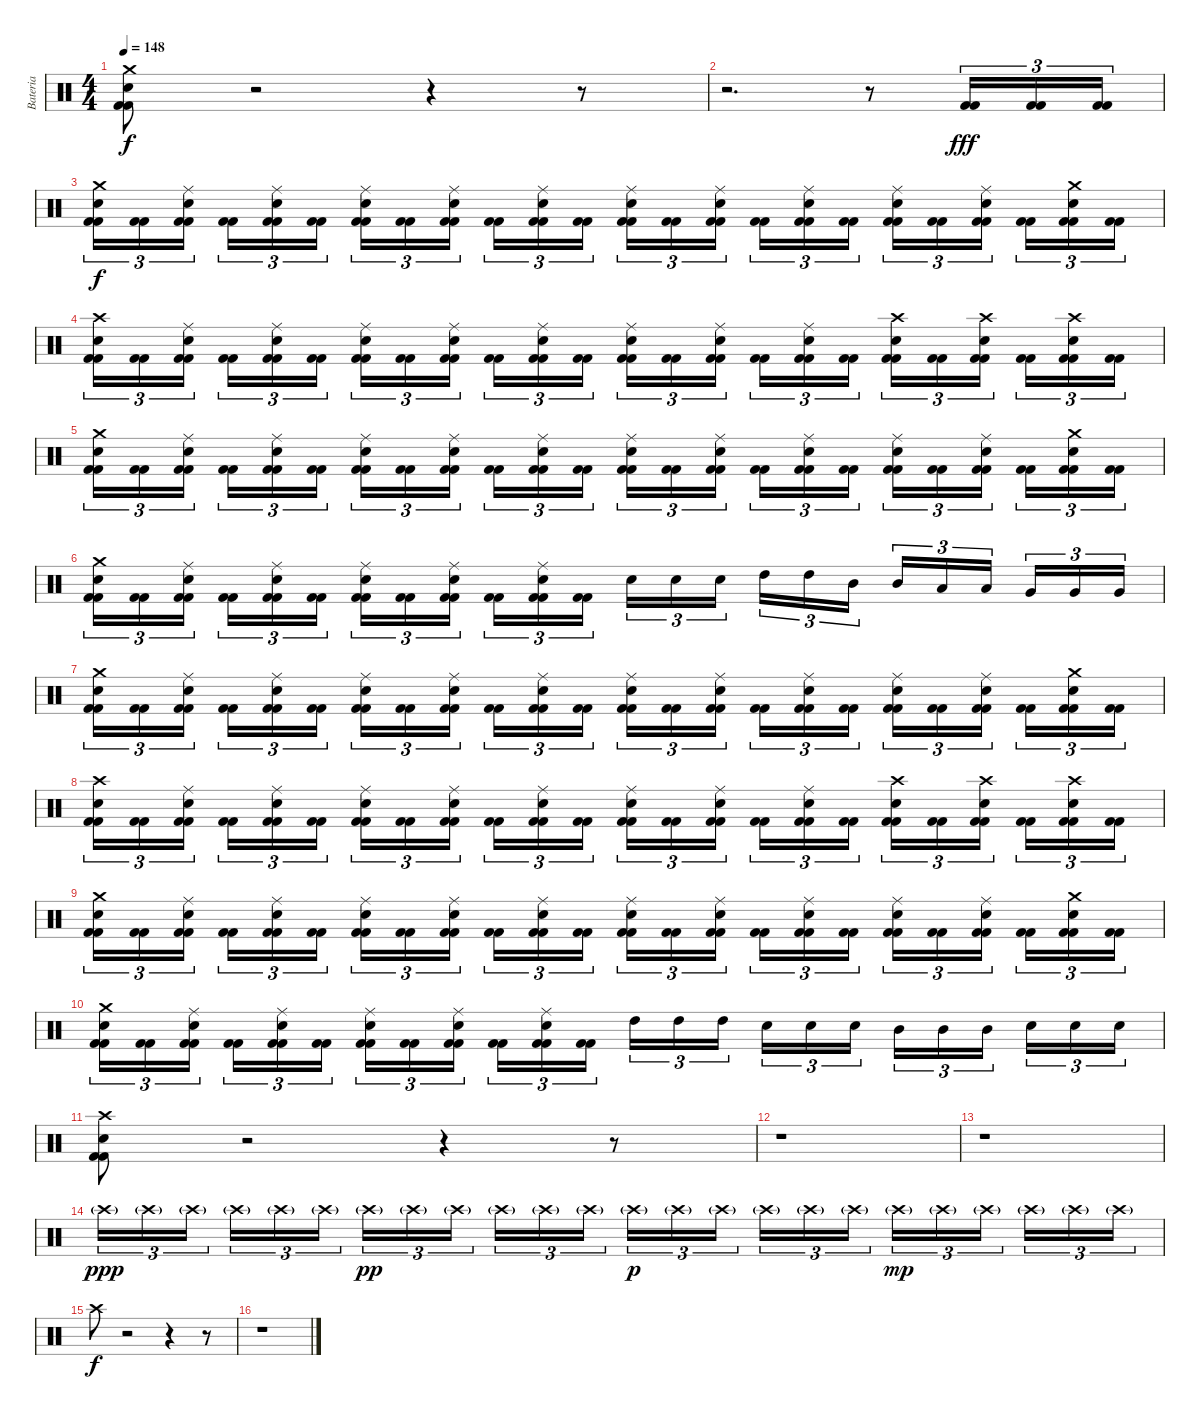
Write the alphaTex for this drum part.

\track ("Bateria" "Bateria") {instrument percussion}
\staff {score}
\articulation defaults
\ts (4 4)
\tempo 148
\clef neutral
\ks c
("Kick (hit) 2" "Kick (hit) 2" "Snare (hit) 2" "Crash medium (hit)").8{dy f} r.2 r.4 r.8 |
r.2{d} r.8 ("Kick (hit) 2" "Kick (hit) 2").16{tu (3 2) dy fff} ("Kick (hit) 2" "Kick (hit) 2").16{tu (3 2)} ("Kick (hit) 2" "Kick (hit) 2").16{tu (3 2)} |
("Kick (hit) 2" "Kick (hit) 2" "Snare (hit) 2" "Crash medium (hit)").16{tu (3 2) dy f} ("Kick (hit) 2" "Kick (hit) 2").16{tu (3 2)} ("Kick (hit) 2" "Kick (hit) 2" "Snare (hit) 2" "Ride (middle)").16{tu (3 2)} ("Kick (hit) 2" "Kick (hit) 2").16{tu (3 2)} ("Kick (hit) 2" "Kick (hit) 2" "Snare (hit) 2" "Ride (middle)").16{tu (3 2)} ("Kick (hit) 2" "Kick (hit) 2").16{tu (3 2)} ("Kick (hit) 2" "Kick (hit) 2" "Snare (hit) 2" "Ride (middle)").16{tu (3 2)} ("Kick (hit) 2" "Kick (hit) 2").16{tu (3 2)} ("Kick (hit) 2" "Kick (hit) 2" "Snare (hit) 2" "Ride (middle)").16{tu (3 2)} ("Kick (hit) 2" "Kick (hit) 2").16{tu (3 2)} ("Kick (hit) 2" "Kick (hit) 2" "Snare (hit) 2" "Ride (middle)").16{tu (3 2)} ("Kick (hit) 2" "Kick (hit) 2").16{tu (3 2)} ("Kick (hit) 2" "Kick (hit) 2" "Snare (hit) 2" "Ride (middle)").16{tu (3 2)} ("Kick (hit) 2" "Kick (hit) 2").16{tu (3 2)} ("Kick (hit) 2" "Kick (hit) 2" "Snare (hit) 2" "Ride (middle)").16{tu (3 2)} ("Kick (hit) 2" "Kick (hit) 2").16{tu (3 2)} ("Kick (hit) 2" "Kick (hit) 2" "Snare (hit) 2" "Ride (middle)").16{tu (3 2)} ("Kick (hit) 2" "Kick (hit) 2").16{tu (3 2)} ("Kick (hit) 2" "Kick (hit) 2" "Snare (hit) 2" "Ride (middle)").16{tu (3 2)} ("Kick (hit) 2" "Kick (hit) 2").16{tu (3 2)} ("Kick (hit) 2" "Kick (hit) 2" "Snare (hit) 2" "Ride (middle)").16{tu (3 2)} ("Kick (hit) 2" "Kick (hit) 2").16{tu (3 2)} ("Kick (hit) 2" "Kick (hit) 2" "Snare (hit) 2" "Crash medium (hit)").16{tu (3 2)} ("Kick (hit) 2" "Kick (hit) 2").16{tu (3 2)} |
("Kick (hit) 2" "Kick (hit) 2" "Snare (hit) 2" "Crash high (hit)").16{tu (3 2)} ("Kick (hit) 2" "Kick (hit) 2").16{tu (3 2)} ("Kick (hit) 2" "Kick (hit) 2" "Snare (hit) 2" "Ride (middle)").16{tu (3 2)} ("Kick (hit) 2" "Kick (hit) 2").16{tu (3 2)} ("Kick (hit) 2" "Kick (hit) 2" "Snare (hit) 2" "Ride (middle)").16{tu (3 2)} ("Kick (hit) 2" "Kick (hit) 2").16{tu (3 2)} ("Kick (hit) 2" "Kick (hit) 2" "Snare (hit) 2" "Ride (middle)").16{tu (3 2)} ("Kick (hit) 2" "Kick (hit) 2").16{tu (3 2)} ("Kick (hit) 2" "Kick (hit) 2" "Snare (hit) 2" "Ride (middle)").16{tu (3 2)} ("Kick (hit) 2" "Kick (hit) 2").16{tu (3 2)} ("Kick (hit) 2" "Kick (hit) 2" "Snare (hit) 2" "Ride (middle)").16{tu (3 2)} ("Kick (hit) 2" "Kick (hit) 2").16{tu (3 2)} ("Kick (hit) 2" "Kick (hit) 2" "Snare (hit) 2" "Ride (middle)").16{tu (3 2)} ("Kick (hit) 2" "Kick (hit) 2").16{tu (3 2)} ("Kick (hit) 2" "Kick (hit) 2" "Snare (hit) 2" "Ride (middle)").16{tu (3 2)} ("Kick (hit) 2" "Kick (hit) 2").16{tu (3 2)} ("Kick (hit) 2" "Kick (hit) 2" "Snare (hit) 2" "Ride (middle)").16{tu (3 2)} ("Kick (hit) 2" "Kick (hit) 2").16{tu (3 2)} ("Kick (hit) 2" "Kick (hit) 2" "Snare (hit) 2" "Crash high (hit)").16{tu (3 2)} ("Kick (hit) 2" "Kick (hit) 2").16{tu (3 2)} ("Kick (hit) 2" "Kick (hit) 2" "Snare (hit) 2" "Crash high (hit)").16{tu (3 2)} ("Kick (hit) 2" "Kick (hit) 2").16{tu (3 2)} ("Kick (hit) 2" "Kick (hit) 2" "Snare (hit) 2" "Crash high (hit)").16{tu (3 2)} ("Kick (hit) 2" "Kick (hit) 2").16{tu (3 2)} |
("Kick (hit) 2" "Kick (hit) 2" "Snare (hit) 2" "Crash medium (hit)").16{tu (3 2)} ("Kick (hit) 2" "Kick (hit) 2").16{tu (3 2)} ("Kick (hit) 2" "Kick (hit) 2" "Snare (hit) 2" "Ride (middle)").16{tu (3 2)} ("Kick (hit) 2" "Kick (hit) 2").16{tu (3 2)} ("Kick (hit) 2" "Kick (hit) 2" "Snare (hit) 2" "Ride (middle)").16{tu (3 2)} ("Kick (hit) 2" "Kick (hit) 2").16{tu (3 2)} ("Kick (hit) 2" "Kick (hit) 2" "Snare (hit) 2" "Ride (middle)").16{tu (3 2)} ("Kick (hit) 2" "Kick (hit) 2").16{tu (3 2)} ("Kick (hit) 2" "Kick (hit) 2" "Snare (hit) 2" "Ride (middle)").16{tu (3 2)} ("Kick (hit) 2" "Kick (hit) 2").16{tu (3 2)} ("Kick (hit) 2" "Kick (hit) 2" "Snare (hit) 2" "Ride (middle)").16{tu (3 2)} ("Kick (hit) 2" "Kick (hit) 2").16{tu (3 2)} ("Kick (hit) 2" "Kick (hit) 2" "Snare (hit) 2" "Ride (middle)").16{tu (3 2)} ("Kick (hit) 2" "Kick (hit) 2").16{tu (3 2)} ("Kick (hit) 2" "Kick (hit) 2" "Snare (hit) 2" "Ride (middle)").16{tu (3 2)} ("Kick (hit) 2" "Kick (hit) 2").16{tu (3 2)} ("Kick (hit) 2" "Kick (hit) 2" "Snare (hit) 2" "Ride (middle)").16{tu (3 2)} ("Kick (hit) 2" "Kick (hit) 2").16{tu (3 2)} ("Kick (hit) 2" "Kick (hit) 2" "Snare (hit) 2" "Ride (middle)").16{tu (3 2)} ("Kick (hit) 2" "Kick (hit) 2").16{tu (3 2)} ("Kick (hit) 2" "Kick (hit) 2" "Snare (hit) 2" "Ride (middle)").16{tu (3 2)} ("Kick (hit) 2" "Kick (hit) 2").16{tu (3 2)} ("Kick (hit) 2" "Kick (hit) 2" "Snare (hit) 2" "Crash medium (hit)").16{tu (3 2)} ("Kick (hit) 2" "Kick (hit) 2").16{tu (3 2)} |
("Kick (hit) 2" "Kick (hit) 2" "Snare (hit) 2" "Crash medium (hit)").16{tu (3 2)} ("Kick (hit) 2" "Kick (hit) 2").16{tu (3 2)} ("Kick (hit) 2" "Kick (hit) 2" "Snare (hit) 2" "Ride (middle)").16{tu (3 2)} ("Kick (hit) 2" "Kick (hit) 2").16{tu (3 2)} ("Kick (hit) 2" "Kick (hit) 2" "Snare (hit) 2" "Ride (middle)").16{tu (3 2)} ("Kick (hit) 2" "Kick (hit) 2").16{tu (3 2)} ("Kick (hit) 2" "Kick (hit) 2" "Snare (hit) 2" "Ride (middle)").16{tu (3 2)} ("Kick (hit) 2" "Kick (hit) 2").16{tu (3 2)} ("Kick (hit) 2" "Kick (hit) 2" "Snare (hit) 2" "Ride (middle)").16{tu (3 2)} ("Kick (hit) 2" "Kick (hit) 2").16{tu (3 2)} ("Kick (hit) 2" "Kick (hit) 2" "Snare (hit) 2" "Ride (middle)").16{tu (3 2)} ("Kick (hit) 2" "Kick (hit) 2").16{tu (3 2)} "Snare (hit) 2".16{tu (3 2)} "Snare (hit) 2".16{tu (3 2)} "Snare (hit) 2".16{tu (3 2)} "High Tom (hit)".16{tu (3 2)} "High Tom (hit)".16{tu (3 2)} "Mid Tom (hit)".16{tu (3 2)} "Mid Tom (hit)".16{tu (3 2)} "Low Tom (hit)".16{tu (3 2)} "Low Tom (hit)".16{tu (3 2)} "Very Low Tom (hit)".16{tu (3 2)} "Very Low Tom (hit)".16{tu (3 2)} "Very Low Tom (hit)".16{tu (3 2)} |
("Kick (hit) 2" "Kick (hit) 2" "Snare (hit) 2" "Crash medium (hit)").16{tu (3 2)} ("Kick (hit) 2" "Kick (hit) 2").16{tu (3 2)} ("Kick (hit) 2" "Kick (hit) 2" "Snare (hit) 2" "Ride (middle)").16{tu (3 2)} ("Kick (hit) 2" "Kick (hit) 2").16{tu (3 2)} ("Kick (hit) 2" "Kick (hit) 2" "Snare (hit) 2" "Ride (middle)").16{tu (3 2)} ("Kick (hit) 2" "Kick (hit) 2").16{tu (3 2)} ("Kick (hit) 2" "Kick (hit) 2" "Snare (hit) 2" "Ride (middle)").16{tu (3 2)} ("Kick (hit) 2" "Kick (hit) 2").16{tu (3 2)} ("Kick (hit) 2" "Kick (hit) 2" "Snare (hit) 2" "Ride (middle)").16{tu (3 2)} ("Kick (hit) 2" "Kick (hit) 2").16{tu (3 2)} ("Kick (hit) 2" "Kick (hit) 2" "Snare (hit) 2" "Ride (middle)").16{tu (3 2)} ("Kick (hit) 2" "Kick (hit) 2").16{tu (3 2)} ("Kick (hit) 2" "Kick (hit) 2" "Snare (hit) 2" "Ride (middle)").16{tu (3 2)} ("Kick (hit) 2" "Kick (hit) 2").16{tu (3 2)} ("Kick (hit) 2" "Kick (hit) 2" "Snare (hit) 2" "Ride (middle)").16{tu (3 2)} ("Kick (hit) 2" "Kick (hit) 2").16{tu (3 2)} ("Kick (hit) 2" "Kick (hit) 2" "Snare (hit) 2" "Ride (middle)").16{tu (3 2)} ("Kick (hit) 2" "Kick (hit) 2").16{tu (3 2)} ("Kick (hit) 2" "Kick (hit) 2" "Snare (hit) 2" "Ride (middle)").16{tu (3 2)} ("Kick (hit) 2" "Kick (hit) 2").16{tu (3 2)} ("Kick (hit) 2" "Kick (hit) 2" "Snare (hit) 2" "Ride (middle)").16{tu (3 2)} ("Kick (hit) 2" "Kick (hit) 2").16{tu (3 2)} ("Kick (hit) 2" "Kick (hit) 2" "Snare (hit) 2" "Crash medium (hit)").16{tu (3 2)} ("Kick (hit) 2" "Kick (hit) 2").16{tu (3 2)} |
("Kick (hit) 2" "Kick (hit) 2" "Snare (hit) 2" "Crash high (hit)").16{tu (3 2)} ("Kick (hit) 2" "Kick (hit) 2").16{tu (3 2)} ("Kick (hit) 2" "Kick (hit) 2" "Snare (hit) 2" "Ride (middle)").16{tu (3 2)} ("Kick (hit) 2" "Kick (hit) 2").16{tu (3 2)} ("Kick (hit) 2" "Kick (hit) 2" "Snare (hit) 2" "Ride (middle)").16{tu (3 2)} ("Kick (hit) 2" "Kick (hit) 2").16{tu (3 2)} ("Kick (hit) 2" "Kick (hit) 2" "Snare (hit) 2" "Ride (middle)").16{tu (3 2)} ("Kick (hit) 2" "Kick (hit) 2").16{tu (3 2)} ("Kick (hit) 2" "Kick (hit) 2" "Snare (hit) 2" "Ride (middle)").16{tu (3 2)} ("Kick (hit) 2" "Kick (hit) 2").16{tu (3 2)} ("Kick (hit) 2" "Kick (hit) 2" "Snare (hit) 2" "Ride (middle)").16{tu (3 2)} ("Kick (hit) 2" "Kick (hit) 2").16{tu (3 2)} ("Kick (hit) 2" "Kick (hit) 2" "Snare (hit) 2" "Ride (middle)").16{tu (3 2)} ("Kick (hit) 2" "Kick (hit) 2").16{tu (3 2)} ("Kick (hit) 2" "Kick (hit) 2" "Snare (hit) 2" "Ride (middle)").16{tu (3 2)} ("Kick (hit) 2" "Kick (hit) 2").16{tu (3 2)} ("Kick (hit) 2" "Kick (hit) 2" "Snare (hit) 2" "Ride (middle)").16{tu (3 2)} ("Kick (hit) 2" "Kick (hit) 2").16{tu (3 2)} ("Kick (hit) 2" "Kick (hit) 2" "Snare (hit) 2" "Crash high (hit)").16{tu (3 2)} ("Kick (hit) 2" "Kick (hit) 2").16{tu (3 2)} ("Kick (hit) 2" "Kick (hit) 2" "Snare (hit) 2" "Crash high (hit)").16{tu (3 2)} ("Kick (hit) 2" "Kick (hit) 2").16{tu (3 2)} ("Kick (hit) 2" "Kick (hit) 2" "Snare (hit) 2" "Crash high (hit)").16{tu (3 2)} ("Kick (hit) 2" "Kick (hit) 2").16{tu (3 2)} |
("Kick (hit) 2" "Kick (hit) 2" "Snare (hit) 2" "Crash medium (hit)").16{tu (3 2)} ("Kick (hit) 2" "Kick (hit) 2").16{tu (3 2)} ("Kick (hit) 2" "Kick (hit) 2" "Snare (hit) 2" "Ride (middle)").16{tu (3 2)} ("Kick (hit) 2" "Kick (hit) 2").16{tu (3 2)} ("Kick (hit) 2" "Kick (hit) 2" "Snare (hit) 2" "Ride (middle)").16{tu (3 2)} ("Kick (hit) 2" "Kick (hit) 2").16{tu (3 2)} ("Kick (hit) 2" "Kick (hit) 2" "Snare (hit) 2" "Ride (middle)").16{tu (3 2)} ("Kick (hit) 2" "Kick (hit) 2").16{tu (3 2)} ("Kick (hit) 2" "Kick (hit) 2" "Snare (hit) 2" "Ride (middle)").16{tu (3 2)} ("Kick (hit) 2" "Kick (hit) 2").16{tu (3 2)} ("Kick (hit) 2" "Kick (hit) 2" "Snare (hit) 2" "Ride (middle)").16{tu (3 2)} ("Kick (hit) 2" "Kick (hit) 2").16{tu (3 2)} ("Kick (hit) 2" "Kick (hit) 2" "Snare (hit) 2" "Ride (middle)").16{tu (3 2)} ("Kick (hit) 2" "Kick (hit) 2").16{tu (3 2)} ("Kick (hit) 2" "Kick (hit) 2" "Snare (hit) 2" "Ride (middle)").16{tu (3 2)} ("Kick (hit) 2" "Kick (hit) 2").16{tu (3 2)} ("Kick (hit) 2" "Kick (hit) 2" "Snare (hit) 2" "Ride (middle)").16{tu (3 2)} ("Kick (hit) 2" "Kick (hit) 2").16{tu (3 2)} ("Kick (hit) 2" "Kick (hit) 2" "Snare (hit) 2" "Ride (middle)").16{tu (3 2)} ("Kick (hit) 2" "Kick (hit) 2").16{tu (3 2)} ("Kick (hit) 2" "Kick (hit) 2" "Snare (hit) 2" "Ride (middle)").16{tu (3 2)} ("Kick (hit) 2" "Kick (hit) 2").16{tu (3 2)} ("Kick (hit) 2" "Kick (hit) 2" "Snare (hit) 2" "Crash medium (hit)").16{tu (3 2)} ("Kick (hit) 2" "Kick (hit) 2").16{tu (3 2)} |
("Kick (hit) 2" "Kick (hit) 2" "Snare (hit) 2" "Crash medium (hit)").16{tu (3 2)} ("Kick (hit) 2" "Kick (hit) 2").16{tu (3 2)} ("Kick (hit) 2" "Kick (hit) 2" "Snare (hit) 2" "Ride (middle)").16{tu (3 2)} ("Kick (hit) 2" "Kick (hit) 2").16{tu (3 2)} ("Kick (hit) 2" "Kick (hit) 2" "Snare (hit) 2" "Ride (middle)").16{tu (3 2)} ("Kick (hit) 2" "Kick (hit) 2").16{tu (3 2)} ("Kick (hit) 2" "Kick (hit) 2" "Snare (hit) 2" "Ride (middle)").16{tu (3 2)} ("Kick (hit) 2" "Kick (hit) 2").16{tu (3 2)} ("Kick (hit) 2" "Kick (hit) 2" "Snare (hit) 2" "Ride (middle)").16{tu (3 2)} ("Kick (hit) 2" "Kick (hit) 2").16{tu (3 2)} ("Kick (hit) 2" "Kick (hit) 2" "Snare (hit) 2" "Ride (middle)").16{tu (3 2)} ("Kick (hit) 2" "Kick (hit) 2").16{tu (3 2)} "High Tom (hit)".16{tu (3 2)} "High Tom (hit)".16{tu (3 2)} "High Tom (hit)".16{tu (3 2)} "Snare (hit) 2".16{tu (3 2)} "Snare (hit) 2".16{tu (3 2)} "Snare (hit) 2".16{tu (3 2)} "Mid Tom (hit)".16{tu (3 2)} "Mid Tom (hit)".16{tu (3 2)} "Mid Tom (hit)".16{tu (3 2)} "Snare (hit) 2".16{tu (3 2)} "Snare (hit) 2".16{tu (3 2)} "Snare (hit) 2".16{tu (3 2)} |
("Kick (hit) 2" "Kick (hit) 2" "Snare (hit) 2" "Crash high (hit)").8 r.2 r.4 r.8 |
r.1 |
r.1 |
"Crash high (hit)"{g}.16{tu (3 2) dy ppp} "Crash high (hit)"{g}.16{tu (3 2)} "Crash high (hit)"{g}.16{tu (3 2)} "Crash high (hit)"{g}.16{tu (3 2)} "Crash high (hit)"{g}.16{tu (3 2)} "Crash high (hit)"{g}.16{tu (3 2)} "Crash high (hit)"{g}.16{tu (3 2) dy pp} "Crash high (hit)"{g}.16{tu (3 2)} "Crash high (hit)"{g}.16{tu (3 2)} "Crash high (hit)"{g}.16{tu (3 2)} "Crash high (hit)"{g}.16{tu (3 2)} "Crash high (hit)"{g}.16{tu (3 2)} "Crash high (hit)"{g}.16{tu (3 2) dy p} "Crash high (hit)"{g}.16{tu (3 2)} "Crash high (hit)"{g}.16{tu (3 2)} "Crash high (hit)"{g}.16{tu (3 2)} "Crash high (hit)"{g}.16{tu (3 2)} "Crash high (hit)"{g}.16{tu (3 2)} "Crash high (hit)"{g}.16{tu (3 2) dy mp} "Crash high (hit)"{g}.16{tu (3 2)} "Crash high (hit)"{g}.16{tu (3 2)} "Crash high (hit)"{g}.16{tu (3 2)} "Crash high (hit)"{g}.16{tu (3 2)} "Crash high (hit)"{g}.16{tu (3 2)} |
"Crash high (hit)".8{dy f} r.2 r.4 r.8 |
r.1
